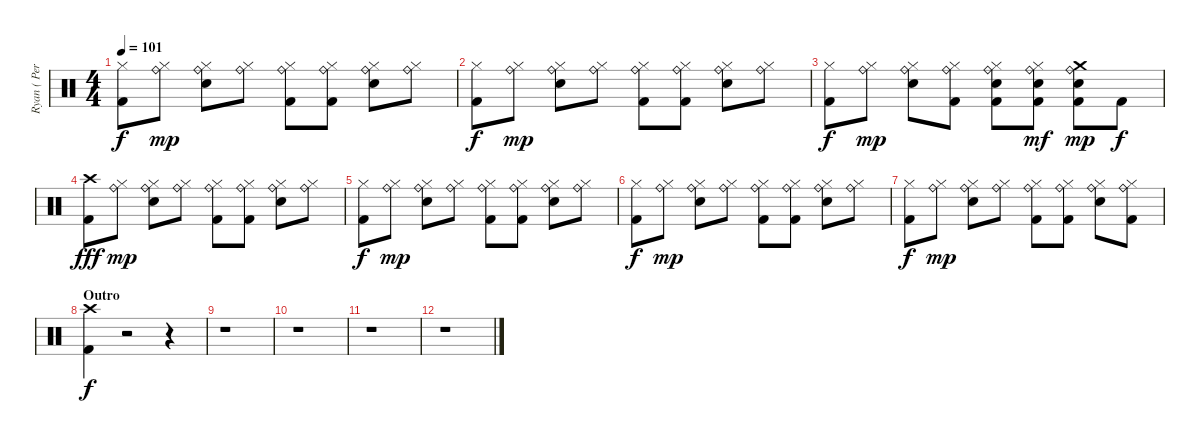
\track ("Ryan ( Percussion )" "Ryan ( Per") {instrument percussion}
\staff {score}
\articulation defaults
\ts (4 4)
\tempo 101
\clef neutral
\ks c
("Hi-Hat (closed)" "Kick (hit) 2").8{dy f} ("Hi-Hat (closed)" "Ride (bell)").8{dy mp} ("Hi-Hat (closed)" "Snare (hit) 2" "Ride (bell)").8 ("Hi-Hat (closed)" "Ride (bell)").8 ("Hi-Hat (closed)" "Kick (hit) 2" "Ride (bell)").8 ("Hi-Hat (closed)" "Kick (hit) 2" "Ride (bell)").8 ("Hi-Hat (closed)" "Snare (hit) 2" "Ride (bell)").8 ("Hi-Hat (closed)" "Ride (bell)").8 |
("Hi-Hat (closed)" "Kick (hit) 2").8{dy f} ("Hi-Hat (closed)" "Ride (bell)").8{dy mp} ("Hi-Hat (closed)" "Snare (hit) 2" "Ride (bell)").8 ("Hi-Hat (closed)" "Ride (bell)").8 ("Hi-Hat (closed)" "Kick (hit) 2" "Ride (bell)").8 ("Hi-Hat (closed)" "Kick (hit) 2" "Ride (bell)").8 ("Hi-Hat (closed)" "Snare (hit) 2" "Ride (bell)").8 ("Hi-Hat (closed)" "Ride (bell)").8 |
("Hi-Hat (closed)" "Kick (hit) 2").8{dy f} ("Hi-Hat (closed)" "Ride (bell)").8{dy mp} ("Hi-Hat (closed)" "Snare (hit) 2" "Ride (bell)").8 ("Hi-Hat (closed)" "Kick (hit) 2" "Ride (bell)").8 ("Hi-Hat (closed)" "Kick (hit) 2" "Snare (hit) 2" "Ride (bell)").8 ("Hi-Hat (closed)" "Kick (hit) 2" "Snare (hit) 2" "Ride (bell)").8{dy mf} ("Crash medium (hit)" "Kick (hit) 2" "Snare (hit) 2" "Ride (bell)").8{dy mp} "Kick (hit) 2".8{dy f} |
("Crash high (hit)" "Kick (hit) 2").8{dy fff} ("Hi-Hat (closed)" "Ride (bell)").8{dy mp} ("Hi-Hat (closed)" "Snare (hit) 2" "Ride (bell)").8 ("Hi-Hat (closed)" "Ride (bell)").8 ("Hi-Hat (closed)" "Kick (hit) 2" "Ride (bell)").8 ("Hi-Hat (closed)" "Kick (hit) 2" "Ride (bell)").8 ("Hi-Hat (closed)" "Snare (hit) 2" "Ride (bell)").8 ("Hi-Hat (closed)" "Ride (bell)").8 |
("Hi-Hat (closed)" "Kick (hit) 2").8{dy f} ("Hi-Hat (closed)" "Ride (bell)").8{dy mp} ("Hi-Hat (closed)" "Snare (hit) 2" "Ride (bell)").8 ("Hi-Hat (closed)" "Ride (bell)").8 ("Hi-Hat (closed)" "Kick (hit) 2" "Ride (bell)").8 ("Hi-Hat (closed)" "Kick (hit) 2" "Ride (bell)").8 ("Hi-Hat (closed)" "Snare (hit) 2" "Ride (bell)").8 ("Hi-Hat (closed)" "Ride (bell)").8 |
("Hi-Hat (closed)" "Kick (hit) 2").8{dy f} ("Hi-Hat (closed)" "Ride (bell)").8{dy mp} ("Hi-Hat (closed)" "Snare (hit) 2" "Ride (bell)").8 ("Hi-Hat (closed)" "Ride (bell)").8 ("Hi-Hat (closed)" "Kick (hit) 2" "Ride (bell)").8 ("Hi-Hat (closed)" "Kick (hit) 2" "Ride (bell)").8 ("Hi-Hat (closed)" "Snare (hit) 2" "Ride (bell)").8 ("Hi-Hat (closed)" "Ride (bell)").8 |
("Hi-Hat (closed)" "Kick (hit) 2").8{dy f} ("Hi-Hat (closed)" "Ride (bell)").8{dy mp} ("Hi-Hat (closed)" "Snare (hit) 2" "Ride (bell)").8 ("Hi-Hat (closed)" "Ride (bell)").8 ("Hi-Hat (closed)" "Kick (hit) 2" "Ride (bell)").8 ("Hi-Hat (closed)" "Kick (hit) 2" "Ride (bell)").8 ("Hi-Hat (closed)" "Snare (hit) 2" "Ride (bell)").8 ("Hi-Hat (closed)" "Kick (hit) 2" "Ride (bell)").8 |
\section ("" "Outro")
("Crash high (hit)" "Kick (hit) 2").4{dy f} r.2 r.4 |
r.1 |
r.1 |
r.1 |
r.1
